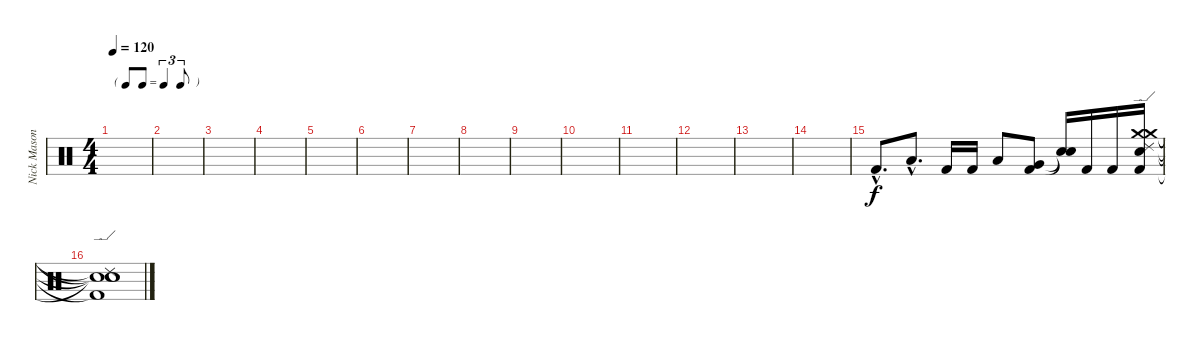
\track ("Nick Mason" "Nick Mason") {instrument percussion}
\staff {score}
\articulation defaults
\ts (4 4)
\tf triplet8th
\tempo 120
\clef neutral
\ks c
|
|
|
|
|
|
|
|
|
|
|
|
|
|
"Kick (hit) 2"{hac}.8{d} "Low Tom (hit)"{hac}.8{d} "Kick (hit) 2".16 "Kick (hit) 2".16 "Low Tom (hit)".8 ("Very Low Tom (hit)" "Kick (hit) 2").8 ("Snare (hit)"{t} "Snare (hit)"{t}).16 "Kick (hit) 2".16 "Kick (hit) 2".16 ("Crash medium (hit)" "Crash medium (hit)" "Electric Snare (hit)" "Kick (hit) 2" "Ride (edge) 2").16 |
("Ride (edge) 2"{t} "Electric Snare (hit)"{t} "Kick (hit) 2"{t} "Snare (hit)"{t} "Snare (hit)"{t}).1
